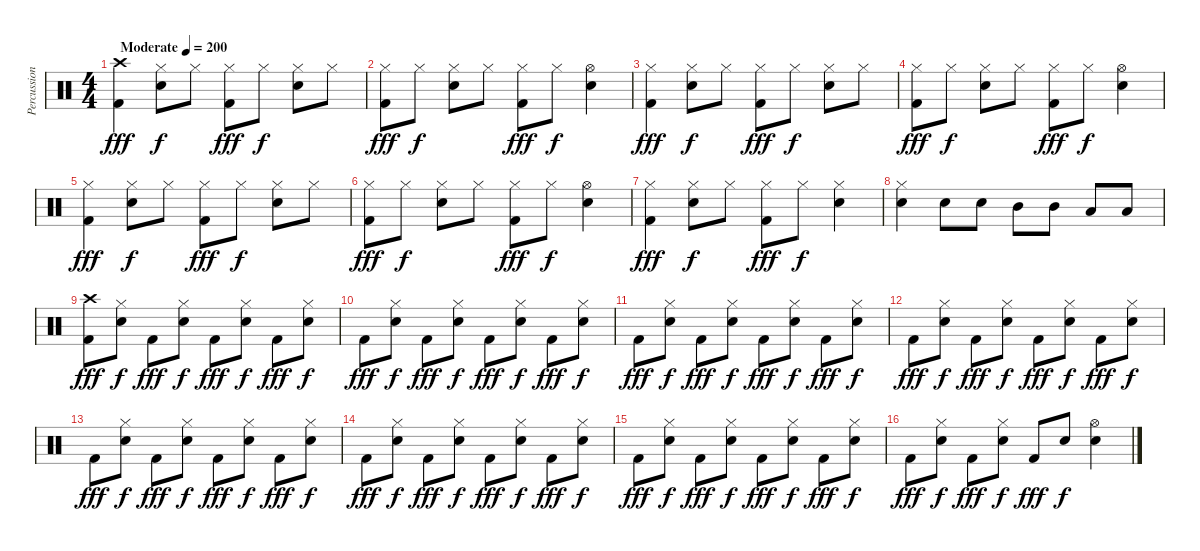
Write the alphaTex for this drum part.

\track ("Percussion" "Percussion") {instrument percussion}
\staff {score}
\articulation defaults
\ts (4 4)
\tempo (200 "Moderate")
\clef neutral
\ks c
("Crash high (hit)" "Kick (hit) 2").4{dy fff} ("Hi-Hat (closed)" "Electric Snare (hit)").8{dy f} "Hi-Hat (closed)".8 ("Hi-Hat (closed)" "Kick (hit) 2").8{dy fff} "Hi-Hat (closed)".8{dy f} ("Hi-Hat (closed)" "Electric Snare (hit)").8 "Hi-Hat (closed)".8 |
("Hi-Hat (closed)" "Kick (hit) 2").8{dy fff} "Hi-Hat (closed)".8{dy f} ("Hi-Hat (closed)" "Electric Snare (hit)").8 "Hi-Hat (closed)".8 ("Hi-Hat (closed)" "Kick (hit) 2").8{dy fff} "Hi-Hat (closed)".8{dy f} ("Hi-Hat (open)" "Electric Snare (hit)").4 |
("Hi-Hat (closed)" "Kick (hit) 2").4{dy fff} ("Hi-Hat (closed)" "Electric Snare (hit)").8{dy f} "Hi-Hat (closed)".8 ("Hi-Hat (closed)" "Kick (hit) 2").8{dy fff} "Hi-Hat (closed)".8{dy f} ("Hi-Hat (closed)" "Electric Snare (hit)").8 "Hi-Hat (closed)".8 |
("Hi-Hat (closed)" "Kick (hit) 2").8{dy fff} "Hi-Hat (closed)".8{dy f} ("Hi-Hat (closed)" "Electric Snare (hit)").8 "Hi-Hat (closed)".8 ("Hi-Hat (closed)" "Kick (hit) 2").8{dy fff} "Hi-Hat (closed)".8{dy f} ("Hi-Hat (open)" "Electric Snare (hit)").4 |
("Hi-Hat (closed)" "Kick (hit) 2").4{dy fff} ("Hi-Hat (closed)" "Electric Snare (hit)").8{dy f} "Hi-Hat (closed)".8 ("Hi-Hat (closed)" "Kick (hit) 2").8{dy fff} "Hi-Hat (closed)".8{dy f} ("Hi-Hat (closed)" "Electric Snare (hit)").8 "Hi-Hat (closed)".8 |
("Hi-Hat (closed)" "Kick (hit) 2").8{dy fff} "Hi-Hat (closed)".8{dy f} ("Hi-Hat (closed)" "Electric Snare (hit)").8 "Hi-Hat (closed)".8 ("Hi-Hat (closed)" "Kick (hit) 2").8{dy fff} "Hi-Hat (closed)".8{dy f} ("Hi-Hat (open)" "Electric Snare (hit)").4 |
("Hi-Hat (closed)" "Kick (hit) 2").4{dy fff} ("Hi-Hat (closed)" "Electric Snare (hit)").8{dy f} "Hi-Hat (closed)".8 ("Hi-Hat (closed)" "Kick (hit) 2").8{dy fff} "Hi-Hat (closed)".8{dy f} ("Hi-Hat (closed)" "Electric Snare (hit)").4 |
("Hi-Hat (closed)" "Electric Snare (hit)").4 "Electric Snare (hit)".8 "Electric Snare (hit)".8 "Mid Tom (hit)".8 "Mid Tom (hit)".8 "Low Tom (hit)".8 "Low Tom (hit)".8 |
("Crash high (hit)" "Kick (hit) 2").8{dy fff} ("Hi-Hat (closed)" "Electric Snare (hit)").8{dy f} "Kick (hit) 2".8{dy fff} ("Hi-Hat (closed)" "Electric Snare (hit)").8{dy f} "Kick (hit) 2".8{dy fff} ("Hi-Hat (closed)" "Electric Snare (hit)").8{dy f} "Kick (hit) 2".8{dy fff} ("Hi-Hat (closed)" "Electric Snare (hit)").8{dy f} |
"Kick (hit) 2".8{dy fff} ("Hi-Hat (closed)" "Electric Snare (hit)").8{dy f} "Kick (hit) 2".8{dy fff} ("Hi-Hat (closed)" "Electric Snare (hit)").8{dy f} "Kick (hit) 2".8{dy fff} ("Hi-Hat (closed)" "Electric Snare (hit)").8{dy f} "Kick (hit) 2".8{dy fff} ("Hi-Hat (closed)" "Electric Snare (hit)").8{dy f} |
"Kick (hit) 2".8{dy fff} ("Hi-Hat (closed)" "Electric Snare (hit)").8{dy f} "Kick (hit) 2".8{dy fff} ("Hi-Hat (closed)" "Electric Snare (hit)").8{dy f} "Kick (hit) 2".8{dy fff} ("Hi-Hat (closed)" "Electric Snare (hit)").8{dy f} "Kick (hit) 2".8{dy fff} ("Hi-Hat (closed)" "Electric Snare (hit)").8{dy f} |
"Kick (hit) 2".8{dy fff} ("Hi-Hat (closed)" "Electric Snare (hit)").8{dy f} "Kick (hit) 2".8{dy fff} ("Hi-Hat (closed)" "Electric Snare (hit)").8{dy f} "Kick (hit) 2".8{dy fff} ("Hi-Hat (closed)" "Electric Snare (hit)").8{dy f} "Kick (hit) 2".8{dy fff} ("Hi-Hat (closed)" "Electric Snare (hit)").8{dy f} |
"Kick (hit) 2".8{dy fff} ("Hi-Hat (closed)" "Electric Snare (hit)").8{dy f} "Kick (hit) 2".8{dy fff} ("Hi-Hat (closed)" "Electric Snare (hit)").8{dy f} "Kick (hit) 2".8{dy fff} ("Hi-Hat (closed)" "Electric Snare (hit)").8{dy f} "Kick (hit) 2".8{dy fff} ("Hi-Hat (closed)" "Electric Snare (hit)").8{dy f} |
"Kick (hit) 2".8{dy fff} ("Hi-Hat (closed)" "Electric Snare (hit)").8{dy f} "Kick (hit) 2".8{dy fff} ("Hi-Hat (closed)" "Electric Snare (hit)").8{dy f} "Kick (hit) 2".8{dy fff} ("Hi-Hat (closed)" "Electric Snare (hit)").8{dy f} "Kick (hit) 2".8{dy fff} ("Hi-Hat (closed)" "Electric Snare (hit)").8{dy f} |
"Kick (hit) 2".8{dy fff} ("Hi-Hat (closed)" "Electric Snare (hit)").8{dy f} "Kick (hit) 2".8{dy fff} ("Hi-Hat (closed)" "Electric Snare (hit)").8{dy f} "Kick (hit) 2".8{dy fff} ("Hi-Hat (closed)" "Electric Snare (hit)").8{dy f} "Kick (hit) 2".8{dy fff} ("Hi-Hat (closed)" "Electric Snare (hit)").8{dy f} |
"Kick (hit) 2".8{dy fff} ("Hi-Hat (closed)" "Electric Snare (hit)").8{dy f} "Kick (hit) 2".8{dy fff} ("Hi-Hat (closed)" "Electric Snare (hit)").8{dy f} "Kick (hit) 2".8{dy fff} "Electric Snare (hit)".8{dy f} ("Hi-Hat (open)" "Electric Snare (hit)").4
